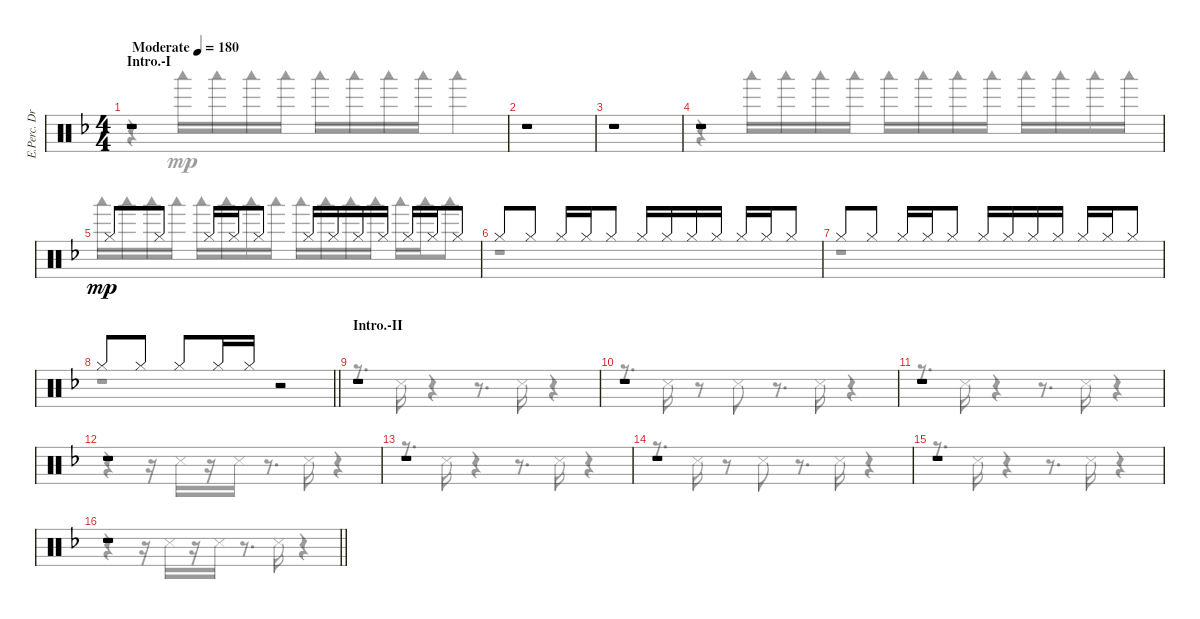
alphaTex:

\track ("E.Perc. Drums" "E.Perc. Dr") {instrument percussion}
\staff {score}
\articulation defaults
\voice
\ts (4 4)
\section ("" "Intro.-I")
\tempo (180 "Moderate")
\clef neutral
\ks f
r.1{dy mp} |
r.1 |
r.1 |
r.1 |
"Hi-Hat (closed)".8 "Hi-Hat (closed)".8 "Hi-Hat (closed)".16 "Hi-Hat (closed)".16 "Hi-Hat (closed)".8 "Hi-Hat (closed)".16 "Hi-Hat (closed)".16 "Hi-Hat (closed)".16 "Hi-Hat (closed)".16 "Hi-Hat (closed)".16 "Hi-Hat (closed)".16 "Hi-Hat (closed)".8 |
"Hi-Hat (closed)".8 "Hi-Hat (closed)".8 "Hi-Hat (closed)".16 "Hi-Hat (closed)".16 "Hi-Hat (closed)".8 "Hi-Hat (closed)".16 "Hi-Hat (closed)".16 "Hi-Hat (closed)".16 "Hi-Hat (closed)".16 "Hi-Hat (closed)".16 "Hi-Hat (closed)".16 "Hi-Hat (closed)".8 |
"Hi-Hat (closed)".8 "Hi-Hat (closed)".8 "Hi-Hat (closed)".16 "Hi-Hat (closed)".16 "Hi-Hat (closed)".8 "Hi-Hat (closed)".16 "Hi-Hat (closed)".16 "Hi-Hat (closed)".16 "Hi-Hat (closed)".16 "Hi-Hat (closed)".16 "Hi-Hat (closed)".16 "Hi-Hat (closed)".8 |
\barLineRight lightlight "Hi-Hat (closed)".8 "Hi-Hat (closed)".8 "Hi-Hat (closed)".8 "Hi-Hat (closed)".16 "Hi-Hat (closed)".16
r.2 |
\section ("" "Intro.-II")
r.1 |
r.1 |
r.1 |
r.1 |
r.1 |
r.1 |
r.1 |
\barLineRight lightlight
r.1
\voice
\clef neutral
\ottava regular
\simile none
\ks f
r.4{dy mp} "Woodblock low (hit)".16 "Woodblock low (hit)".16 "Woodblock low (hit)".16 "Woodblock low (hit)".16 "Woodblock low (hit)".16 "Woodblock low (hit)".16 "Woodblock low (hit)".16 "Woodblock low (hit)".16 "Woodblock low (hit)".4 |
|
|
r.4 "Woodblock low (hit)".16 "Woodblock low (hit)".16 "Woodblock low (hit)".16 "Woodblock low (hit)".16 "Woodblock low (hit)".16 "Woodblock low (hit)".16 "Woodblock low (hit)".16 "Woodblock low (hit)".16 "Woodblock low (hit)".16 "Woodblock low (hit)".16 "Woodblock low (hit)".16 "Woodblock low (hit)".16 |
"Woodblock low (hit)".16 "Woodblock low (hit)".16 "Woodblock low (hit)".16 "Woodblock low (hit)".16 "Woodblock low (hit)".16 "Woodblock low (hit)".16 "Woodblock low (hit)".16 "Woodblock low (hit)".16 "Woodblock low (hit)".16 "Woodblock low (hit)".16 "Woodblock low (hit)".16 "Woodblock low (hit)".16 "Woodblock low (hit)".16 "Woodblock low (hit)".16 "Woodblock low (hit)".8 |
r.1 |
r.1 |
\barLineRight lightlight
r.1 |
r.8{d} "Snare (side stick) 3".16 r.4 r.8{d} "Snare (side stick) 3".16 r.4 |
r.8{d} "Snare (side stick) 3".16 r.8 "Snare (side stick) 3".8 r.8{d} "Snare (side stick) 3".16 r.4 |
r.8{d} "Snare (side stick) 3".16 r.4 r.8{d} "Snare (side stick) 3".16 r.4 |
r.4 r.16 "Snare (side stick) 3".16 r.16 "Snare (side stick) 3".16 r.8{d} "Snare (side stick) 3".16 r.4 |
r.8{d} "Snare (side stick) 3".16 r.4 r.8{d} "Snare (side stick) 3".16 r.4 |
r.8{d} "Snare (side stick) 3".16 r.8 "Snare (side stick) 3".8 r.8{d} "Snare (side stick) 3".16 r.4 |
r.8{d} "Snare (side stick) 3".16 r.4 r.8{d} "Snare (side stick) 3".16 r.4 |
\barLineRight lightlight
r.4 r.16 "Snare (side stick) 3".16 r.16 "Snare (side stick) 3".16 r.8{d} "Snare (side stick) 3".16 r.4
